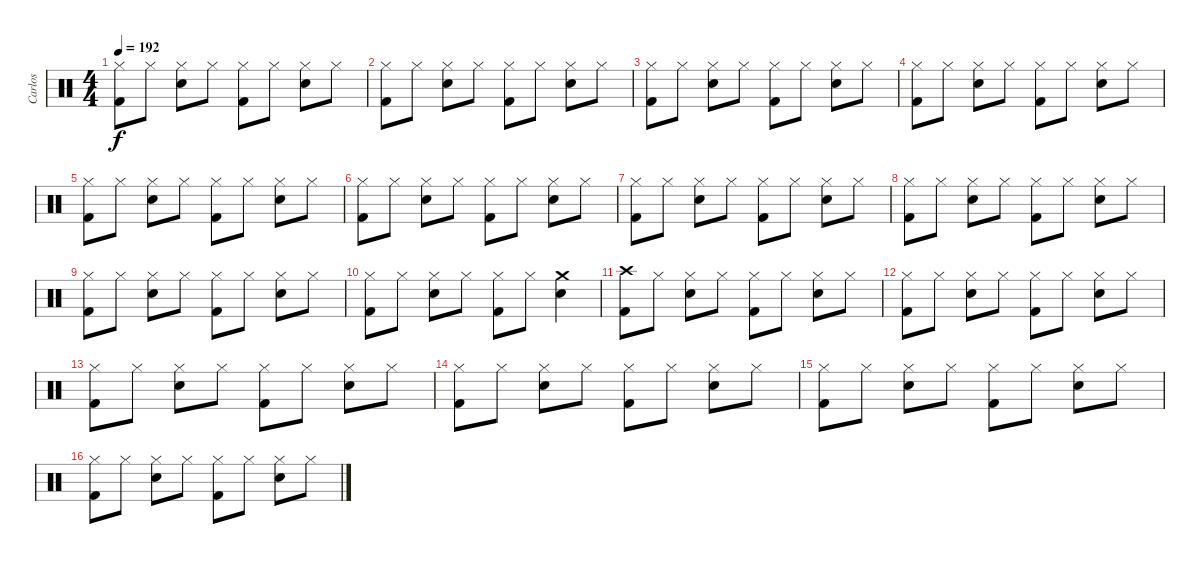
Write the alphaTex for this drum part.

\track ("Carlos" "Carlos") {instrument percussion}
\staff {score}
\articulation defaults
\ts (4 4)
\tempo 192
\clef neutral
\ks c
("Hi-Hat (closed)" "Kick (hit) 2").8{dy f} "Hi-Hat (closed)".8 ("Hi-Hat (closed)" "Snare (hit) 2").8 "Hi-Hat (closed)".8 ("Hi-Hat (closed)" "Kick (hit) 2").8 "Hi-Hat (closed)".8 ("Hi-Hat (closed)" "Snare (hit) 2").8 "Hi-Hat (closed)".8 |
("Hi-Hat (closed)" "Kick (hit) 2").8 "Hi-Hat (closed)".8 ("Hi-Hat (closed)" "Snare (hit) 2").8 "Hi-Hat (closed)".8 ("Hi-Hat (closed)" "Kick (hit) 2").8 "Hi-Hat (closed)".8 ("Hi-Hat (closed)" "Snare (hit) 2").8 "Hi-Hat (closed)".8 |
("Hi-Hat (closed)" "Kick (hit) 2").8 "Hi-Hat (closed)".8 ("Hi-Hat (closed)" "Snare (hit) 2").8 "Hi-Hat (closed)".8 ("Hi-Hat (closed)" "Kick (hit) 2").8 "Hi-Hat (closed)".8 ("Hi-Hat (closed)" "Snare (hit) 2").8 "Hi-Hat (closed)".8 |
("Hi-Hat (closed)" "Kick (hit) 2").8 "Hi-Hat (closed)".8 ("Hi-Hat (closed)" "Snare (hit) 2").8 "Hi-Hat (closed)".8 ("Hi-Hat (closed)" "Kick (hit) 2").8 "Hi-Hat (closed)".8 ("Hi-Hat (closed)" "Snare (hit) 2").8 "Hi-Hat (closed)".8 |
("Hi-Hat (closed)" "Kick (hit) 2").8 "Hi-Hat (closed)".8 ("Hi-Hat (closed)" "Snare (hit) 2").8 "Hi-Hat (closed)".8 ("Hi-Hat (closed)" "Kick (hit) 2").8 "Hi-Hat (closed)".8 ("Hi-Hat (closed)" "Snare (hit) 2").8 "Hi-Hat (closed)".8 |
("Hi-Hat (closed)" "Kick (hit) 2").8 "Hi-Hat (closed)".8 ("Hi-Hat (closed)" "Snare (hit) 2").8 "Hi-Hat (closed)".8 ("Hi-Hat (closed)" "Kick (hit) 2").8 "Hi-Hat (closed)".8 ("Hi-Hat (closed)" "Snare (hit) 2").8 "Hi-Hat (closed)".8 |
("Hi-Hat (closed)" "Kick (hit) 2").8 "Hi-Hat (closed)".8 ("Hi-Hat (closed)" "Snare (hit) 2").8 "Hi-Hat (closed)".8 ("Hi-Hat (closed)" "Kick (hit) 2").8 "Hi-Hat (closed)".8 ("Hi-Hat (closed)" "Snare (hit) 2").8 "Hi-Hat (closed)".8 |
("Hi-Hat (closed)" "Kick (hit) 2").8 "Hi-Hat (closed)".8 ("Hi-Hat (closed)" "Snare (hit) 2").8 "Hi-Hat (closed)".8 ("Hi-Hat (closed)" "Kick (hit) 2").8 "Hi-Hat (closed)".8 ("Hi-Hat (closed)" "Snare (hit) 2").8 "Hi-Hat (closed)".8 |
("Hi-Hat (closed)" "Kick (hit) 2").8 "Hi-Hat (closed)".8 ("Hi-Hat (closed)" "Snare (hit) 2").8 "Hi-Hat (closed)".8 ("Hi-Hat (closed)" "Kick (hit) 2").8 "Hi-Hat (closed)".8 ("Hi-Hat (closed)" "Snare (hit) 2").8 "Hi-Hat (closed)".8 |
("Hi-Hat (closed)" "Kick (hit) 2").8 "Hi-Hat (closed)".8 ("Hi-Hat (closed)" "Snare (hit) 2").8 "Hi-Hat (closed)".8 ("Hi-Hat (closed)" "Kick (hit) 2").8 "Hi-Hat (closed)".8 ("Crash medium (hit)" "Snare (hit) 2").4 |
("Crash high (hit)" "Kick (hit) 2").8 "Hi-Hat (closed)".8 ("Hi-Hat (closed)" "Snare (hit) 2").8 "Hi-Hat (closed)".8 ("Hi-Hat (closed)" "Kick (hit) 2").8 "Hi-Hat (closed)".8 ("Hi-Hat (closed)" "Snare (hit) 2").8 "Hi-Hat (closed)".8 |
("Hi-Hat (closed)" "Kick (hit) 2").8 "Hi-Hat (closed)".8 ("Hi-Hat (closed)" "Snare (hit) 2").8 "Hi-Hat (closed)".8 ("Hi-Hat (closed)" "Kick (hit) 2").8 "Hi-Hat (closed)".8 ("Hi-Hat (closed)" "Snare (hit) 2").8 "Hi-Hat (closed)".8 |
("Hi-Hat (closed)" "Kick (hit) 2").8 "Hi-Hat (closed)".8 ("Hi-Hat (closed)" "Snare (hit) 2").8 "Hi-Hat (closed)".8 ("Hi-Hat (closed)" "Kick (hit) 2").8 "Hi-Hat (closed)".8 ("Hi-Hat (closed)" "Snare (hit) 2").8 "Hi-Hat (closed)".8 |
("Hi-Hat (closed)" "Kick (hit) 2").8 "Hi-Hat (closed)".8 ("Hi-Hat (closed)" "Snare (hit) 2").8 "Hi-Hat (closed)".8 ("Hi-Hat (closed)" "Kick (hit) 2").8 "Hi-Hat (closed)".8 ("Hi-Hat (closed)" "Snare (hit) 2").8 "Hi-Hat (closed)".8 |
("Hi-Hat (closed)" "Kick (hit) 2").8 "Hi-Hat (closed)".8 ("Hi-Hat (closed)" "Snare (hit) 2").8 "Hi-Hat (closed)".8 ("Hi-Hat (closed)" "Kick (hit) 2").8 "Hi-Hat (closed)".8 ("Hi-Hat (closed)" "Snare (hit) 2").8 "Hi-Hat (closed)".8 |
("Hi-Hat (closed)" "Kick (hit) 2").8 "Hi-Hat (closed)".8 ("Hi-Hat (closed)" "Snare (hit) 2").8 "Hi-Hat (closed)".8 ("Hi-Hat (closed)" "Kick (hit) 2").8 "Hi-Hat (closed)".8 ("Hi-Hat (closed)" "Snare (hit) 2").8 "Hi-Hat (closed)".8
